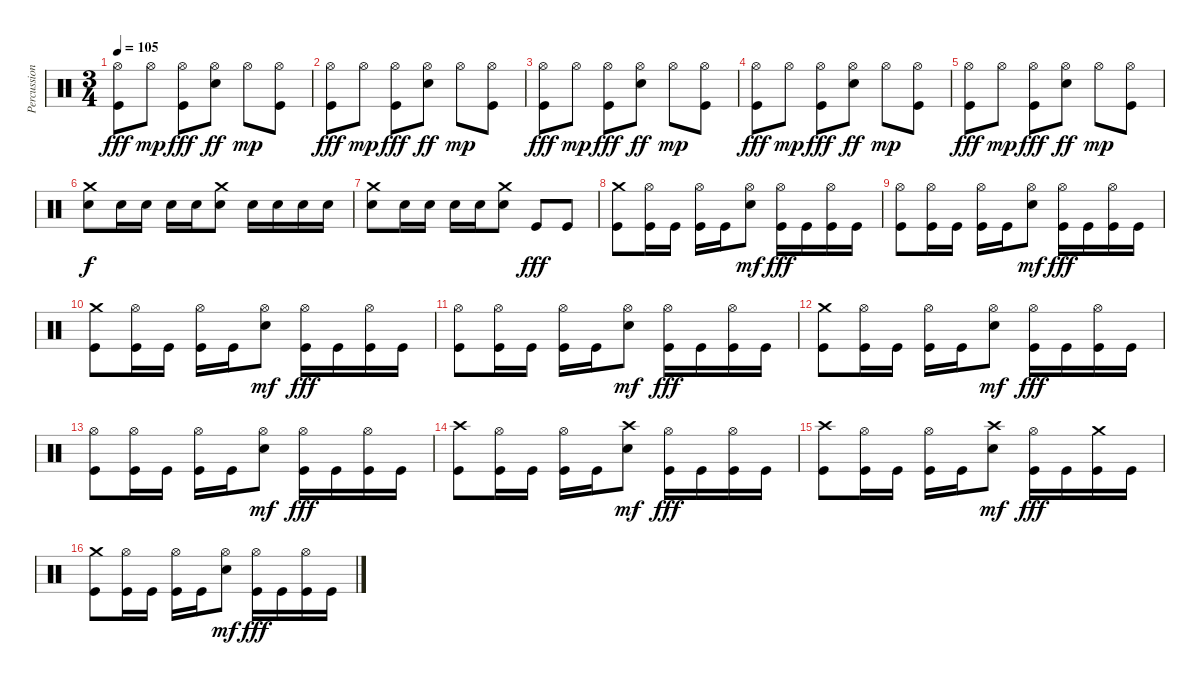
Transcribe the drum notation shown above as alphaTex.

\track ("Percussions" "Percussion") {instrument percussion}
\staff {score}
\articulation defaults
\ts (3 4)
\tempo 105
\clef neutral
\ks c
("Hi-Hat (open)" "Kick (hit)").8{dy fff} "Hi-Hat (open)".8{dy mp} ("Hi-Hat (open)" "Kick (hit)").8{dy fff} ("Hi-Hat (open)" "Snare (hit) 2").8{dy ff} "Hi-Hat (open)".8{dy mp} ("Hi-Hat (open)" "Kick (hit)").8 |
("Hi-Hat (open)" "Kick (hit)").8{dy fff} "Hi-Hat (open)".8{dy mp} ("Hi-Hat (open)" "Kick (hit)").8{dy fff} ("Hi-Hat (open)" "Snare (hit) 2").8{dy ff} "Hi-Hat (open)".8{dy mp} ("Hi-Hat (open)" "Kick (hit)").8 |
("Hi-Hat (open)" "Kick (hit)").8{dy fff} "Hi-Hat (open)".8{dy mp} ("Hi-Hat (open)" "Kick (hit)").8{dy fff} ("Hi-Hat (open)" "Snare (hit) 2").8{dy ff} "Hi-Hat (open)".8{dy mp} ("Hi-Hat (open)" "Kick (hit)").8 |
("Hi-Hat (open)" "Kick (hit)").8{dy fff} "Hi-Hat (open)".8{dy mp} ("Hi-Hat (open)" "Kick (hit)").8{dy fff} ("Hi-Hat (open)" "Snare (hit) 2").8{dy ff} "Hi-Hat (open)".8{dy mp} ("Hi-Hat (open)" "Kick (hit)").8 |
("Hi-Hat (open)" "Kick (hit)").8{dy fff} "Hi-Hat (open)".8{dy mp} ("Hi-Hat (open)" "Kick (hit)").8{dy fff} ("Hi-Hat (open)" "Snare (hit) 2").8{dy ff} "Hi-Hat (open)".8{dy mp} ("Hi-Hat (open)" "Kick (hit)").8 |
("Crash medium (hit)" "Snare (hit) 2").8{dy f} "Snare (hit) 2".16 "Snare (hit) 2".16 "Snare (hit) 2".16 "Snare (hit) 2".16 ("Crash medium (hit)" "Snare (hit) 2").8 "Snare (hit) 2".16 "Snare (hit) 2".16 "Snare (hit) 2".16 "Snare (hit) 2".16 |
("Crash medium (hit)" "Snare (hit) 2").8 "Snare (hit) 2".16 "Snare (hit) 2".16 "Snare (hit) 2".16 "Snare (hit) 2".16 ("Crash medium (hit)" "Snare (hit) 2").8 "Kick (hit)".8{dy fff} "Kick (hit)".8 |
("Crash medium (hit)" "Kick (hit)").8 ("Hi-Hat (open)" "Kick (hit)").16 "Kick (hit)".16 ("Hi-Hat (open)" "Kick (hit)").16 "Kick (hit)".16 ("Hi-Hat (open)" "Snare (hit) 2").8{dy mf} ("Hi-Hat (open)" "Kick (hit)").16{dy fff} "Kick (hit)".16 ("Hi-Hat (open)" "Kick (hit)").16 "Kick (hit)".16 |
("Hi-Hat (open)" "Kick (hit)").8 ("Hi-Hat (open)" "Kick (hit)").16 "Kick (hit)".16 ("Hi-Hat (open)" "Kick (hit)").16 "Kick (hit)".16 ("Hi-Hat (open)" "Snare (hit) 2").8{dy mf} ("Hi-Hat (open)" "Kick (hit)").16{dy fff} "Kick (hit)".16 ("Hi-Hat (open)" "Kick (hit)").16 "Kick (hit)".16 |
("Crash medium (hit)" "Kick (hit)").8 ("Hi-Hat (open)" "Kick (hit)").16 "Kick (hit)".16 ("Hi-Hat (open)" "Kick (hit)").16 "Kick (hit)".16 ("Hi-Hat (open)" "Snare (hit) 2").8{dy mf} ("Hi-Hat (open)" "Kick (hit)").16{dy fff} "Kick (hit)".16 ("Hi-Hat (open)" "Kick (hit)").16 "Kick (hit)".16 |
("Hi-Hat (open)" "Kick (hit)").8 ("Hi-Hat (open)" "Kick (hit)").16 "Kick (hit)".16 ("Hi-Hat (open)" "Kick (hit)").16 "Kick (hit)".16 ("Hi-Hat (open)" "Snare (hit) 2").8{dy mf} ("Hi-Hat (open)" "Kick (hit)").16{dy fff} "Kick (hit)".16 ("Hi-Hat (open)" "Kick (hit)").16 "Kick (hit)".16 |
("Crash medium (hit)" "Kick (hit)").8 ("Hi-Hat (open)" "Kick (hit)").16 "Kick (hit)".16 ("Hi-Hat (open)" "Kick (hit)").16 "Kick (hit)".16 ("Hi-Hat (open)" "Snare (hit) 2").8{dy mf} ("Hi-Hat (open)" "Kick (hit)").16{dy fff} "Kick (hit)".16 ("Hi-Hat (open)" "Kick (hit)").16 "Kick (hit)".16 |
("Hi-Hat (open)" "Kick (hit)").8 ("Hi-Hat (open)" "Kick (hit)").16 "Kick (hit)".16 ("Hi-Hat (open)" "Kick (hit)").16 "Kick (hit)".16 ("Hi-Hat (open)" "Snare (hit) 2").8{dy mf} ("Hi-Hat (open)" "Kick (hit)").16{dy fff} "Kick (hit)".16 ("Hi-Hat (open)" "Kick (hit)").16 "Kick (hit)".16 |
("Crash high (hit)" "Kick (hit)").8 ("Hi-Hat (open)" "Kick (hit)").16 "Kick (hit)".16 ("Hi-Hat (open)" "Kick (hit)").16 "Kick (hit)".16 ("Crash high (hit)" "Snare (hit) 2").8{dy mf} ("Hi-Hat (open)" "Kick (hit)").16{dy fff} "Kick (hit)".16 ("Hi-Hat (open)" "Kick (hit)").16 "Kick (hit)".16 |
("Crash high (hit)" "Kick (hit)").8 ("Hi-Hat (open)" "Kick (hit)").16 "Kick (hit)".16 ("Hi-Hat (open)" "Kick (hit)").16 "Kick (hit)".16 ("Crash high (hit)" "Snare (hit) 2").8{dy mf} ("Hi-Hat (open)" "Kick (hit)").16{dy fff} "Kick (hit)".16 ("Crash medium (hit)" "Kick (hit)").16 "Kick (hit)".16 |
("Crash medium (hit)" "Kick (hit)").8 ("Hi-Hat (open)" "Kick (hit)").16 "Kick (hit)".16 ("Hi-Hat (open)" "Kick (hit)").16 "Kick (hit)".16 ("Hi-Hat (open)" "Snare (hit) 2").8{dy mf} ("Hi-Hat (open)" "Kick (hit)").16{dy fff} "Kick (hit)".16 ("Hi-Hat (open)" "Kick (hit)").16 "Kick (hit)".16
